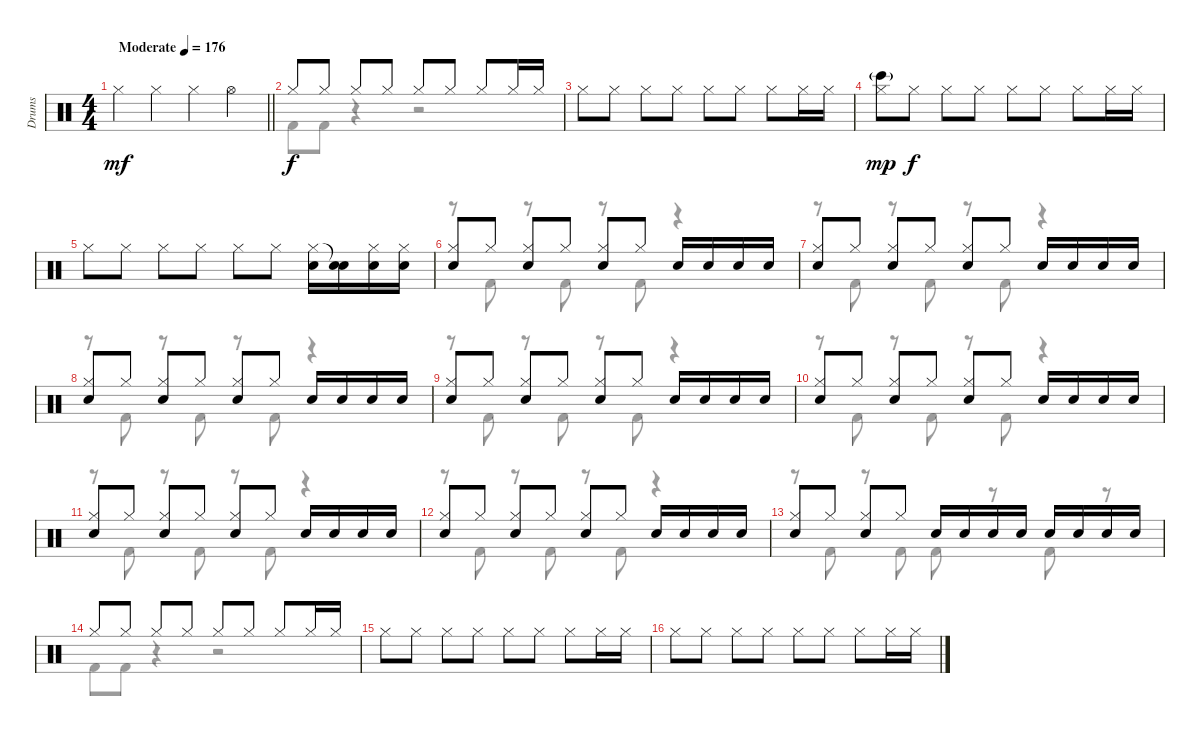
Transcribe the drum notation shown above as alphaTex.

\track ("Drums" "Drums") {instrument percussion}
\staff {score}
\articulation defaults
\voice
\ts (4 4)
\tempo (176 "Moderate")
\clef neutral
\barLineRight lightlight
\ks c "Hi-Hat (closed)".4{dy mf} "Hi-Hat (closed)".4 "Hi-Hat (closed)".4 "Hi-Hat (open)".4
|
"Hi-Hat (closed)".8{dy f} "Hi-Hat (closed)".8 "Hi-Hat (closed)".8 "Hi-Hat (closed)".8 "Hi-Hat (closed)".8 "Hi-Hat (closed)".8 "Hi-Hat (closed)".8 "Hi-Hat (closed)".16 "Hi-Hat (closed)".16 |
"Hi-Hat (closed)".8 "Hi-Hat (closed)".8 "Hi-Hat (closed)".8 "Hi-Hat (closed)".8 "Hi-Hat (closed)".8 "Hi-Hat (closed)".8 "Hi-Hat (closed)".8 "Hi-Hat (closed)".16 "Hi-Hat (closed)".16 |
("Hi-Hat (closed)" "Bongo High (hit)"{g}).8{dy mp} "Hi-Hat (closed)".8{dy f} "Hi-Hat (closed)".8 "Hi-Hat (closed)".8 "Hi-Hat (closed)".8 "Hi-Hat (closed)".8 "Hi-Hat (closed)".8 "Hi-Hat (closed)".16 "Hi-Hat (closed)".16 |
"Hi-Hat (closed)".8 "Hi-Hat (closed)".8 "Hi-Hat (closed)".8 "Hi-Hat (closed)".8 "Hi-Hat (closed)".8 "Hi-Hat (closed)".8 ("Hi-Hat (closed)" "Snare (hit) 2").16 ("Snare (hit)"{t} "Snare (hit) 2").16 ("Hi-Hat (closed)" "Snare (hit) 2").16 ("Hi-Hat (closed)" "Snare (hit) 2").16 |
("Hi-Hat (closed)" "Snare (hit) 2").8 "Hi-Hat (closed)".8 ("Hi-Hat (closed)" "Snare (hit) 2").8 "Hi-Hat (closed)".8 ("Hi-Hat (closed)" "Snare (hit) 2").8 "Hi-Hat (closed)".8 "Snare (hit) 2".16 "Snare (hit) 2".16 "Snare (hit) 2".16 "Snare (hit) 2".16 |
("Hi-Hat (closed)" "Snare (hit) 2").8 "Hi-Hat (closed)".8 ("Hi-Hat (closed)" "Snare (hit) 2").8 "Hi-Hat (closed)".8 ("Hi-Hat (closed)" "Snare (hit) 2").8 "Hi-Hat (closed)".8 "Snare (hit) 2".16 "Snare (hit) 2".16 "Snare (hit) 2".16 "Snare (hit) 2".16 |
("Hi-Hat (closed)" "Snare (hit) 2").8 "Hi-Hat (closed)".8 ("Hi-Hat (closed)" "Snare (hit) 2").8 "Hi-Hat (closed)".8 ("Hi-Hat (closed)" "Snare (hit) 2").8 "Hi-Hat (closed)".8 "Snare (hit) 2".16 "Snare (hit) 2".16 "Snare (hit) 2".16 "Snare (hit) 2".16 |
("Hi-Hat (closed)" "Snare (hit) 2").8 "Hi-Hat (closed)".8 ("Hi-Hat (closed)" "Snare (hit) 2").8 "Hi-Hat (closed)".8 ("Hi-Hat (closed)" "Snare (hit) 2").8 "Hi-Hat (closed)".8 "Snare (hit) 2".16 "Snare (hit) 2".16 "Snare (hit) 2".16 "Snare (hit) 2".16 |
("Hi-Hat (closed)" "Snare (hit) 2").8 "Hi-Hat (closed)".8 ("Hi-Hat (closed)" "Snare (hit) 2").8 "Hi-Hat (closed)".8 ("Hi-Hat (closed)" "Snare (hit) 2").8 "Hi-Hat (closed)".8 "Snare (hit) 2".16 "Snare (hit) 2".16 "Snare (hit) 2".16 "Snare (hit) 2".16 |
("Hi-Hat (closed)" "Snare (hit) 2").8 "Hi-Hat (closed)".8 ("Hi-Hat (closed)" "Snare (hit) 2").8 "Hi-Hat (closed)".8 ("Hi-Hat (closed)" "Snare (hit) 2").8 "Hi-Hat (closed)".8 "Snare (hit) 2".16 "Snare (hit) 2".16 "Snare (hit) 2".16 "Snare (hit) 2".16 |
("Hi-Hat (closed)" "Snare (hit) 2").8 "Hi-Hat (closed)".8 ("Hi-Hat (closed)" "Snare (hit) 2").8 "Hi-Hat (closed)".8 ("Hi-Hat (closed)" "Snare (hit) 2").8 "Hi-Hat (closed)".8 "Snare (hit) 2".16 "Snare (hit) 2".16 "Snare (hit) 2".16 "Snare (hit) 2".16 |
("Hi-Hat (closed)" "Snare (hit) 2").8 "Hi-Hat (closed)".8 ("Hi-Hat (closed)" "Snare (hit) 2").8 "Hi-Hat (closed)".8 "Snare (hit) 2".16 "Snare (hit) 2".16 "Snare (hit) 2".16 "Snare (hit) 2".16 "Snare (hit) 2".16 "Snare (hit) 2".16 "Snare (hit) 2".16 "Snare (hit) 2".16 |
"Hi-Hat (closed)".8 "Hi-Hat (closed)".8 "Hi-Hat (closed)".8 "Hi-Hat (closed)".8 "Hi-Hat (closed)".8 "Hi-Hat (closed)".8 "Hi-Hat (closed)".8 "Hi-Hat (closed)".16 "Hi-Hat (closed)".16 |
"Hi-Hat (closed)".8 "Hi-Hat (closed)".8 "Hi-Hat (closed)".8 "Hi-Hat (closed)".8 "Hi-Hat (closed)".8 "Hi-Hat (closed)".8 "Hi-Hat (closed)".8 "Hi-Hat (closed)".16 "Hi-Hat (closed)".16 |
"Hi-Hat (closed)".8 "Hi-Hat (closed)".8 "Hi-Hat (closed)".8 "Hi-Hat (closed)".8 "Hi-Hat (closed)".8 "Hi-Hat (closed)".8 "Hi-Hat (closed)".8 "Hi-Hat (closed)".16 "Hi-Hat (closed)".16
\voice
\clef neutral
\ottava regular
\simile none
\barLineRight lightlight
\ks c
|
"Kick (hit) 2".8 "Kick (hit) 2".8 r.4 r.2 |
|
|
|
r.8 "Kick (hit) 2".8 r.8 "Kick (hit) 2".8 r.8 "Kick (hit) 2".8 r.4 |
r.8 "Kick (hit) 2".8 r.8 "Kick (hit) 2".8 r.8 "Kick (hit) 2".8 r.4 |
r.8 "Kick (hit) 2".8 r.8 "Kick (hit) 2".8 r.8 "Kick (hit) 2".8 r.4 |
r.8 "Kick (hit) 2".8 r.8 "Kick (hit) 2".8 r.8 "Kick (hit) 2".8 r.4 |
r.8 "Kick (hit) 2".8 r.8 "Kick (hit) 2".8 r.8 "Kick (hit) 2".8 r.4 |
r.8 "Kick (hit) 2".8 r.8 "Kick (hit) 2".8 r.8 "Kick (hit) 2".8 r.4 |
r.8 "Kick (hit) 2".8 r.8 "Kick (hit) 2".8 r.8 "Kick (hit) 2".8 r.4 |
r.8 "Kick (hit) 2".8 r.8 "Kick (hit) 2".8 "Kick (hit) 2".8 r.8 "Kick (hit) 2".8 r.8 |
"Kick (hit) 2".8 "Kick (hit) 2".8 r.4 r.2 |
|
